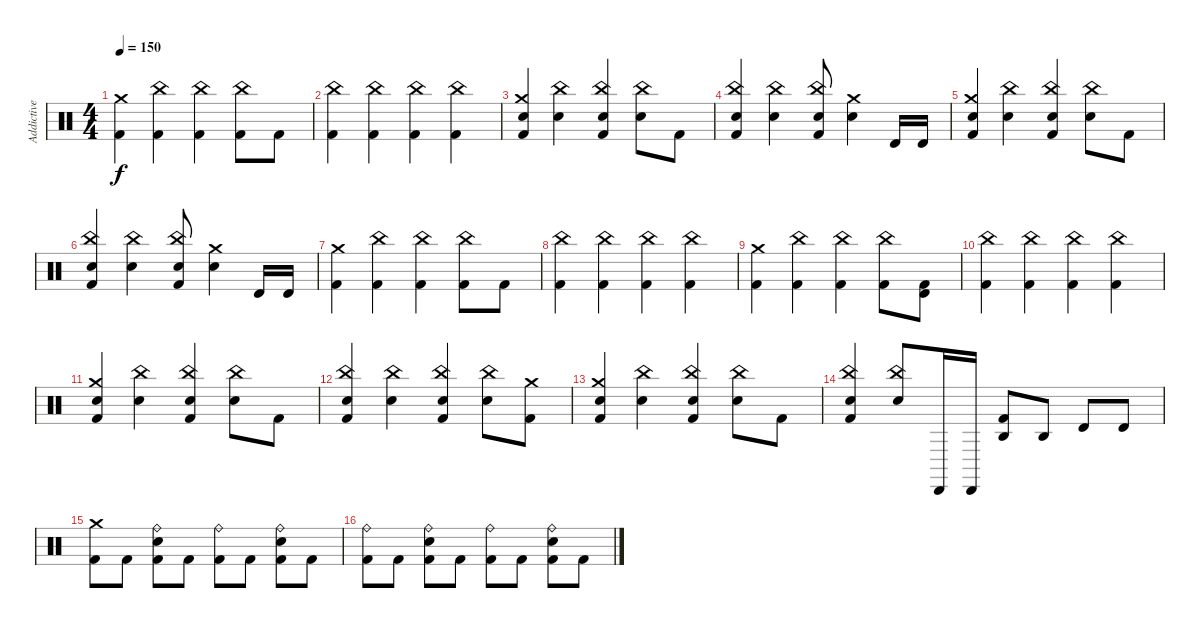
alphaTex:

\track ("Addictive Drums (MIDI)" "Addictive ") {instrument percussion}
\staff {score}
\articulation defaults
\ts (4 4)
\tempo 150
\clef neutral
\ks c
("Kick (hit) 2" "Crash medium (hit)").4{dy f} ("China (hit)" "Kick (hit) 2").4 ("China (hit)" "Kick (hit) 2").4 ("Kick (hit) 2" "China (hit)").8 "Kick (hit) 2".8 |
("China (hit)" "Kick (hit) 2").4 ("China (hit)" "Kick (hit) 2").4 ("Kick (hit) 2" "China (hit)").4 ("Kick (hit) 2" "China (hit)").4 |
("Snare (hit) 2" "Kick (hit) 2" "Crash medium (hit)").4 ("Snare (hit) 2" "China (hit)").4 ("Kick (hit) 2" "China (hit)" "Snare (hit) 2").4 ("Snare (hit) 2" "China (hit)").8 "Kick (hit) 2".8 |
("Kick (hit) 2" "China (hit)" "Snare (hit) 2").4 ("Snare (hit) 2" "China (hit)").4 ("Kick (hit) 2" "China (hit)" "Snare (hit) 2").8 ("Crash medium (hit)" "Snare (hit) 2").4 "Timbale high (hit)".16 "Timbale high (hit)".16 |
("Crash medium (hit)" "Kick (hit) 2" "Snare (hit) 2").4 ("China (hit)" "Snare (hit) 2").4 ("Snare (hit) 2" "China (hit)" "Kick (hit) 2").4 ("Snare (hit) 2" "China (hit)").8 "Kick (hit) 2".8 |
("Kick (hit) 2" "China (hit)" "Snare (hit) 2").4 ("China (hit)" "Snare (hit) 2").4 ("Snare (hit) 2" "China (hit)" "Kick (hit) 2").8 ("Crash medium (hit)" "Snare (hit) 2").4 "Timbale high (hit)".16 "Timbale high (hit)".16 |
("Kick (hit) 2" "Crash medium (hit)").4 ("China (hit)" "Kick (hit) 2").4 ("Kick (hit) 2" "China (hit)").4 ("Kick (hit) 2" "China (hit)").8 "Kick (hit) 2".8 |
("China (hit)" "Kick (hit) 2").4 ("Kick (hit) 2" "China (hit)").4 ("China (hit)" "Kick (hit) 2").4 ("Kick (hit) 2" "China (hit)").4 |
("Crash medium (hit)" "Kick (hit) 2").4 ("China (hit)" "Kick (hit) 2").4 ("China (hit)" "Kick (hit) 2").4 ("China (hit)" "Kick (hit) 2").8 ("Timbale high (hit)" "Kick (hit) 2").8 |
("China (hit)" "Kick (hit) 2").4 ("China (hit)" "Kick (hit) 2").4 ("China (hit)" "Kick (hit) 2").4 ("China (hit)" "Kick (hit) 2").4 |
("Crash medium (hit)" "Kick (hit) 2" "Snare (hit) 2").4 ("Snare (hit) 2" "China (hit)").4 ("Snare (hit) 2" "China (hit)" "Kick (hit) 2").4 ("China (hit)" "Snare (hit) 2").8 "Kick (hit) 2".8 |
("Kick (hit) 2" "China (hit)" "Snare (hit) 2").4 ("China (hit)" "Snare (hit) 2").4 ("Snare (hit) 2" "China (hit)" "Kick (hit) 2").4 ("China (hit)" "Snare (hit) 2").8 ("Kick (hit) 2" "Crash medium (hit)").8 |
("Snare (hit) 2" "Kick (hit) 2" "Crash medium (hit)").4 ("China (hit)" "Snare (hit) 2").4 ("Kick (hit) 2" "China (hit)" "Snare (hit) 2").4 ("Snare (hit) 2" "China (hit)").8 "Kick (hit) 2".8 |
("Kick (hit) 2" "China (hit)" "Snare (hit) 2").4 ("Snare (hit) 2" "China (hit)").8 "Cabasa (hit)".16 "Cabasa (hit)".16 ("Kick (hit) 2" "Agogo high (hit)").8 "Agogo high (hit)".8 "Timbale high (hit)".8 "Timbale high (hit)".8 |
("Crash medium (hit)" "Kick (hit) 2").8 "Kick (hit) 2".8 ("Ride (bell)" "Kick (hit) 2" "Snare (hit) 2").8 "Kick (hit) 2".8 ("Kick (hit) 2" "Ride (bell)").8 "Kick (hit) 2".8 ("Ride (bell)" "Kick (hit) 2" "Snare (hit) 2").8 "Kick (hit) 2".8 |
("Ride (bell)" "Kick (hit) 2").8 "Kick (hit) 2".8 ("Ride (bell)" "Kick (hit) 2" "Snare (hit) 2").8 "Kick (hit) 2".8 ("Kick (hit) 2" "Ride (bell)").8 "Kick (hit) 2".8 ("Snare (hit) 2" "Kick (hit) 2" "Ride (bell)").8 "Kick (hit) 2".8
